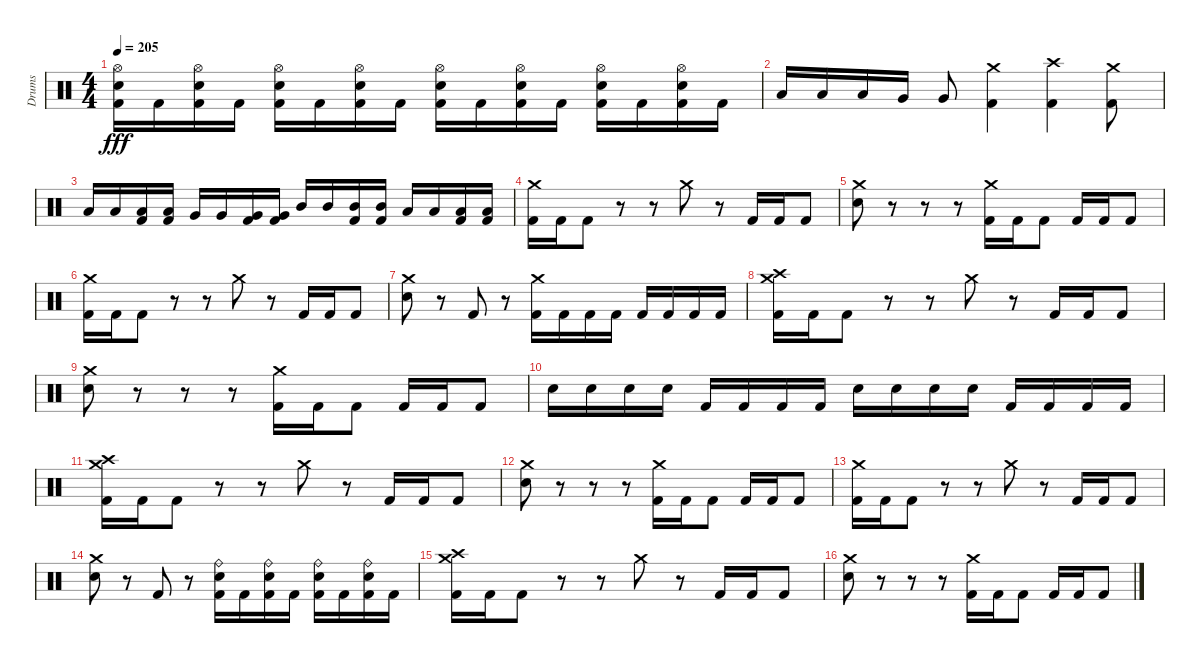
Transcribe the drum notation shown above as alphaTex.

\track ("Drums" "Drums") {instrument percussion}
\staff {score}
\articulation defaults
\ts (4 4)
\tempo 205
\clef neutral
\ks c
("Hi-Hat (open)" "Snare (hit) 2" "Kick (hit) 2").16{dy fff} "Kick (hit) 2".16 ("Hi-Hat (open)" "Snare (hit) 2" "Kick (hit) 2").16 "Kick (hit) 2".16 ("Hi-Hat (open)" "Snare (hit) 2" "Kick (hit) 2").16 "Kick (hit) 2".16 ("Hi-Hat (open)" "Snare (hit) 2" "Kick (hit) 2").16 "Kick (hit) 2".16 ("Hi-Hat (open)" "Snare (hit) 2" "Kick (hit) 2").16 "Kick (hit) 2".16 ("Hi-Hat (open)" "Snare (hit) 2" "Kick (hit) 2").16 "Kick (hit) 2".16 ("Hi-Hat (open)" "Snare (hit) 2" "Kick (hit) 2").16 "Kick (hit) 2".16 ("Hi-Hat (open)" "Snare (hit) 2" "Kick (hit) 2").16 "Kick (hit) 2".16 |
"Low Tom (hit)".16 "Low Tom (hit)".16 "Low Tom (hit)".16 "Very Low Tom (hit)".16 "Very Low Tom (hit)".8 ("Crash medium (hit)" "Kick (hit) 2").4 ("Crash high (hit)" "Kick (hit) 2").4 ("Crash medium (hit)" "Kick (hit) 2").8 |
"Low Tom (hit)".16 "Low Tom (hit)".16 ("Low Tom (hit)" "Kick (hit) 2").16 ("Low Tom (hit)" "Kick (hit) 2").16 "Very Low Tom (hit)".16 "Very Low Tom (hit)".16 ("Very Low Tom (hit)" "Kick (hit) 2").16 ("Very Low Tom (hit)" "Kick (hit) 2").16 "Mid Tom (hit)".16 "Mid Tom (hit)".16 ("Mid Tom (hit)" "Kick (hit) 2").16 ("Mid Tom (hit)" "Kick (hit) 2").16 "Low Tom (hit)".16 "Low Tom (hit)".16 ("Low Tom (hit)" "Kick (hit) 2").16 ("Low Tom (hit)" "Kick (hit) 2").16 |
("Crash medium (hit)" "Kick (hit) 2").16 "Kick (hit) 2".16 "Kick (hit) 2".8 r.8 r.8 "Crash medium (hit)".8 r.8 "Kick (hit) 2".16 "Kick (hit) 2".16 "Kick (hit) 2".8 |
("Crash medium (hit)" "Snare (hit) 2").8 r.8 r.8 r.8 ("Crash medium (hit)" "Kick (hit) 2").16 "Kick (hit) 2".16 "Kick (hit) 2".8 "Kick (hit) 2".16 "Kick (hit) 2".16 "Kick (hit) 2".8 |
("Crash medium (hit)" "Kick (hit) 2").16 "Kick (hit) 2".16 "Kick (hit) 2".8 r.8 r.8 "Crash medium (hit)".8 r.8 "Kick (hit) 2".16 "Kick (hit) 2".16 "Kick (hit) 2".8 |
("Crash medium (hit)" "Snare (hit) 2").8 r.8 "Kick (hit) 2".8 r.8 ("Crash medium (hit)" "Kick (hit) 2").16 "Kick (hit) 2".16 "Kick (hit) 2".16 "Kick (hit) 2".16 "Kick (hit) 2".16 "Kick (hit) 2".16 "Kick (hit) 2".16 "Kick (hit) 2".16 |
("Crash medium (hit)" "Crash high (hit)" "Kick (hit) 2").16 "Kick (hit) 2".16 "Kick (hit) 2".8 r.8 r.8 "Crash medium (hit)".8 r.8 "Kick (hit) 2".16 "Kick (hit) 2".16 "Kick (hit) 2".8 |
("Crash medium (hit)" "Snare (hit) 2").8 r.8 r.8 r.8 ("Crash medium (hit)" "Kick (hit) 2").16 "Kick (hit) 2".16 "Kick (hit) 2".8 "Kick (hit) 2".16 "Kick (hit) 2".16 "Kick (hit) 2".8 |
"Electric Snare (hit)".16 "Electric Snare (hit)".16 "Electric Snare (hit)".16 "Electric Snare (hit)".16 "Kick (hit) 2".16 "Kick (hit) 2".16 "Kick (hit) 2".16 "Kick (hit) 2".16 "Electric Snare (hit)".16 "Electric Snare (hit)".16 "Electric Snare (hit)".16 "Electric Snare (hit)".16 "Kick (hit) 2".16 "Kick (hit) 2".16 "Kick (hit) 2".16 "Kick (hit) 2".16 |
("Crash medium (hit)" "Crash high (hit)" "Kick (hit) 2").16 "Kick (hit) 2".16 "Kick (hit) 2".8 r.8 r.8 "Crash medium (hit)".8 r.8 "Kick (hit) 2".16 "Kick (hit) 2".16 "Kick (hit) 2".8 |
("Crash medium (hit)" "Snare (hit) 2").8 r.8 r.8 r.8 ("Crash medium (hit)" "Kick (hit) 2").16 "Kick (hit) 2".16 "Kick (hit) 2".8 "Kick (hit) 2".16 "Kick (hit) 2".16 "Kick (hit) 2".8 |
("Crash medium (hit)" "Kick (hit) 2").16 "Kick (hit) 2".16 "Kick (hit) 2".8 r.8 r.8 "Crash medium (hit)".8 r.8 "Kick (hit) 2".16 "Kick (hit) 2".16 "Kick (hit) 2".8 |
("Crash medium (hit)" "Snare (hit) 2").8 r.8 "Kick (hit) 2".8 r.8 ("Ride (bell)" "Snare (hit) 2" "Kick (hit) 2").16 "Kick (hit) 2".16 ("Ride (bell)" "Snare (hit) 2" "Kick (hit) 2").16 "Kick (hit) 2".16 ("Ride (bell)" "Snare (hit) 2" "Kick (hit) 2").16 "Kick (hit) 2".16 ("Ride (bell)" "Snare (hit) 2" "Kick (hit) 2").16 "Kick (hit) 2".16 |
("Crash medium (hit)" "Crash high (hit)" "Kick (hit) 2").16 "Kick (hit) 2".16 "Kick (hit) 2".8 r.8 r.8 "Crash medium (hit)".8 r.8 "Kick (hit) 2".16 "Kick (hit) 2".16 "Kick (hit) 2".8 |
("Crash medium (hit)" "Snare (hit) 2").8 r.8 r.8 r.8 ("Crash medium (hit)" "Kick (hit) 2").16 "Kick (hit) 2".16 "Kick (hit) 2".8 "Kick (hit) 2".16 "Kick (hit) 2".16 "Kick (hit) 2".8
